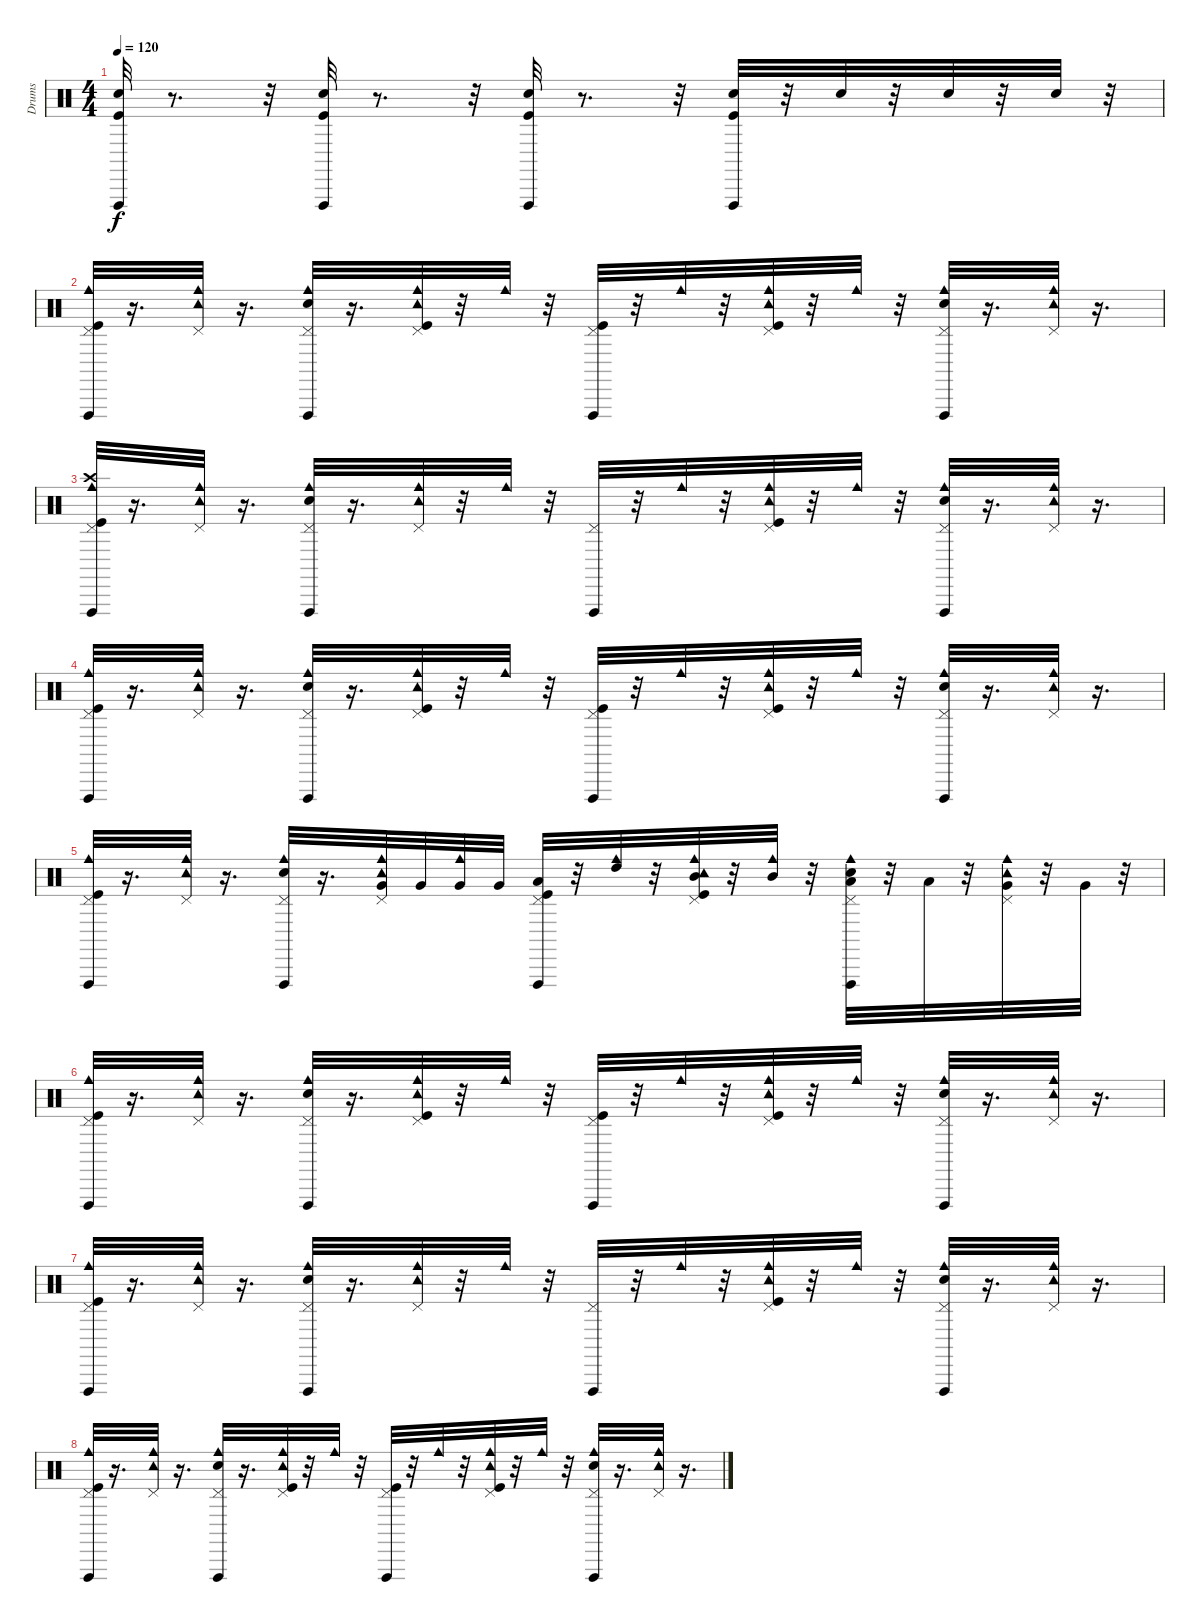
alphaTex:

\track ("Drums" "Drums") {instrument percussion}
\staff {score}
\articulation defaults
\ts (4 4)
\tempo 120
\clef neutral
\ks c
("Snare (hit) 2" "Vibraslap (hit)" "Kick (hit)").32{dy f} r.8{d} r.32 ("Snare (hit) 2" "Vibraslap (hit)" "Kick (hit)").32 r.8{d} r.32 ("Snare (hit) 2" "Vibraslap (hit)" "Kick (hit)").32 r.8{d} r.32 ("Snare (hit) 2" "Vibraslap (hit)" "Kick (hit)").32 r.32 "Snare (hit) 2".32 r.32 "Snare (hit) 2".32 r.32 "Snare (hit) 2".32 r.32 |
("Vibraslap (hit)" "Cowbell medium (hit)" "Pedal Hi-Hat (hit)" "Kick (hit)").32 r.16{d} ("Tambourine (hit)" "Pedal Hi-Hat (hit)" "Cowbell medium (hit)").32 r.16{d} ("Pedal Hi-Hat (hit)" "Snare (hit) 2" "Cowbell medium (hit)" "Vibraslap (hit)").32 r.16{d} ("Tambourine (hit)" "Pedal Hi-Hat (hit)" "Kick (hit)" "Cowbell medium (hit)").32 r.32 "Cowbell medium (hit)".32 r.32 ("Pedal Hi-Hat (hit)" "Vibraslap (hit)" "Kick (hit)").32 r.32 "Cowbell medium (hit)".32 r.32 ("Tambourine (hit)" "Pedal Hi-Hat (hit)" "Cowbell medium (hit)" "Kick (hit)").32 r.32 "Cowbell medium (hit)".32 r.32 ("Vibraslap (hit)" "Pedal Hi-Hat (hit)" "Cowbell medium (hit)" "Snare (hit) 2").32 r.16{d} ("Tambourine (hit)" "Cowbell medium (hit)" "Pedal Hi-Hat (hit)").32 r.16{d} |
("Vibraslap (hit)" "Cowbell medium (hit)" "Pedal Hi-Hat (hit)" "Crash high (hit)" "Kick (hit)").32 r.16{d} ("Pedal Hi-Hat (hit)" "Tambourine (hit)" "Cowbell medium (hit)").32 r.16{d} ("Snare (hit) 2" "Cowbell medium (hit)" "Vibraslap (hit)" "Pedal Hi-Hat (hit)").32 r.16{d} ("Cowbell medium (hit)" "Pedal Hi-Hat (hit)" "Tambourine (hit)").32 r.32 "Cowbell medium (hit)".32 r.32 ("Vibraslap (hit)" "Pedal Hi-Hat (hit)").32 r.32 "Cowbell medium (hit)".32 r.32 ("Tambourine (hit)" "Cowbell medium (hit)" "Pedal Hi-Hat (hit)" "Kick (hit)").32 r.32 "Cowbell medium (hit)".32 r.32 ("Cowbell medium (hit)" "Vibraslap (hit)" "Snare (hit) 2" "Pedal Hi-Hat (hit)").32 r.16{d} ("Pedal Hi-Hat (hit)" "Cowbell medium (hit)" "Tambourine (hit)").32 r.16{d} |
("Kick (hit)" "Cowbell medium (hit)" "Pedal Hi-Hat (hit)" "Vibraslap (hit)").32 r.16{d} ("Tambourine (hit)" "Pedal Hi-Hat (hit)" "Cowbell medium (hit)").32 r.16{d} ("Pedal Hi-Hat (hit)" "Snare (hit) 2" "Cowbell medium (hit)" "Vibraslap (hit)").32 r.16{d} ("Pedal Hi-Hat (hit)" "Tambourine (hit)" "Kick (hit)" "Cowbell medium (hit)").32 r.32 "Cowbell medium (hit)".32 r.32 ("Pedal Hi-Hat (hit)" "Kick (hit)" "Vibraslap (hit)").32 r.32 "Cowbell medium (hit)".32 r.32 ("Tambourine (hit)" "Pedal Hi-Hat (hit)" "Cowbell medium (hit)" "Kick (hit)").32 r.32 "Cowbell medium (hit)".32 r.32 ("Cowbell medium (hit)" "Pedal Hi-Hat (hit)" "Snare (hit) 2" "Vibraslap (hit)").32 r.16{d} ("Pedal Hi-Hat (hit)" "Tambourine (hit)" "Cowbell medium (hit)").32 r.16{d} |
("Cowbell medium (hit)" "Pedal Hi-Hat (hit)" "Kick (hit)" "Vibraslap (hit)").32 r.16{d} ("Pedal Hi-Hat (hit)" "Cowbell medium (hit)" "Tambourine (hit)").32 r.16{d} ("Pedal Hi-Hat (hit)" "Cowbell medium (hit)" "Snare (hit) 2" "Vibraslap (hit)").32 r.16{d} ("Cowbell medium (hit)" "Pedal Hi-Hat (hit)" "Tambourine (hit)" "Very Low Tom (hit)").32 "Very Low Tom (hit)".32 ("Cowbell medium (hit)" "Very Low Tom (hit)").32 "Very Low Tom (hit)".32 ("Low Tom (hit)" "Kick (hit)" "Pedal Hi-Hat (hit)" "Vibraslap (hit)").32 r.32 ("High Tom (hit)" "Cowbell medium (hit)").32 r.32 ("Tambourine (hit)" "Pedal Hi-Hat (hit)" "Mid Tom (hit)" "Kick (hit)" "Cowbell medium (hit)").32 r.32 ("Mid Tom (hit)" "Cowbell medium (hit)").32 r.32 ("Low Tom (hit)" "Snare (hit) 2" "Pedal Hi-Hat (hit)" "Cowbell medium (hit)" "Vibraslap (hit)").32 r.32 "Low Tom (hit)".32 r.32 ("Very Low Tom (hit)" "Pedal Hi-Hat (hit)" "Tambourine (hit)" "Cowbell medium (hit)").32 r.32 "Very Low Tom (hit)".32 r.32 |
("Vibraslap (hit)" "Cowbell medium (hit)" "Pedal Hi-Hat (hit)" "Kick (hit)").32 r.16{d} ("Tambourine (hit)" "Pedal Hi-Hat (hit)" "Cowbell medium (hit)").32 r.16{d} ("Pedal Hi-Hat (hit)" "Snare (hit) 2" "Cowbell medium (hit)" "Vibraslap (hit)").32 r.16{d} ("Tambourine (hit)" "Pedal Hi-Hat (hit)" "Kick (hit)" "Cowbell medium (hit)").32 r.32 "Cowbell medium (hit)".32 r.32 ("Pedal Hi-Hat (hit)" "Vibraslap (hit)" "Kick (hit)").32 r.32 "Cowbell medium (hit)".32 r.32 ("Tambourine (hit)" "Pedal Hi-Hat (hit)" "Cowbell medium (hit)" "Kick (hit)").32 r.32 "Cowbell medium (hit)".32 r.32 ("Vibraslap (hit)" "Pedal Hi-Hat (hit)" "Cowbell medium (hit)" "Snare (hit) 2").32 r.16{d} ("Tambourine (hit)" "Cowbell medium (hit)" "Pedal Hi-Hat (hit)").32 r.16{d} |
("Vibraslap (hit)" "Cowbell medium (hit)" "Pedal Hi-Hat (hit)" "Kick (hit)").32 r.16{d} ("Pedal Hi-Hat (hit)" "Tambourine (hit)" "Cowbell medium (hit)").32 r.16{d} ("Snare (hit) 2" "Cowbell medium (hit)" "Vibraslap (hit)" "Pedal Hi-Hat (hit)").32 r.16{d} ("Cowbell medium (hit)" "Pedal Hi-Hat (hit)" "Tambourine (hit)").32 r.32 "Cowbell medium (hit)".32 r.32 ("Vibraslap (hit)" "Pedal Hi-Hat (hit)").32 r.32 "Cowbell medium (hit)".32 r.32 ("Tambourine (hit)" "Cowbell medium (hit)" "Pedal Hi-Hat (hit)" "Kick (hit)").32 r.32 "Cowbell medium (hit)".32 r.32 ("Cowbell medium (hit)" "Vibraslap (hit)" "Snare (hit) 2" "Pedal Hi-Hat (hit)").32 r.16{d} ("Pedal Hi-Hat (hit)" "Cowbell medium (hit)" "Tambourine (hit)").32 r.16{d} |
("Kick (hit)" "Cowbell medium (hit)" "Pedal Hi-Hat (hit)" "Vibraslap (hit)").32 r.16{d} ("Tambourine (hit)" "Pedal Hi-Hat (hit)" "Cowbell medium (hit)").32 r.16{d} ("Pedal Hi-Hat (hit)" "Snare (hit) 2" "Cowbell medium (hit)" "Vibraslap (hit)").32 r.16{d} ("Pedal Hi-Hat (hit)" "Tambourine (hit)" "Kick (hit)" "Cowbell medium (hit)").32 r.32 "Cowbell medium (hit)".32 r.32 ("Pedal Hi-Hat (hit)" "Kick (hit)" "Vibraslap (hit)").32 r.32 "Cowbell medium (hit)".32 r.32 ("Tambourine (hit)" "Pedal Hi-Hat (hit)" "Cowbell medium (hit)" "Kick (hit)").32 r.32 "Cowbell medium (hit)".32 r.32 ("Cowbell medium (hit)" "Pedal Hi-Hat (hit)" "Snare (hit) 2" "Vibraslap (hit)").32 r.16{d} ("Pedal Hi-Hat (hit)" "Tambourine (hit)" "Cowbell medium (hit)").32 r.16{d}
